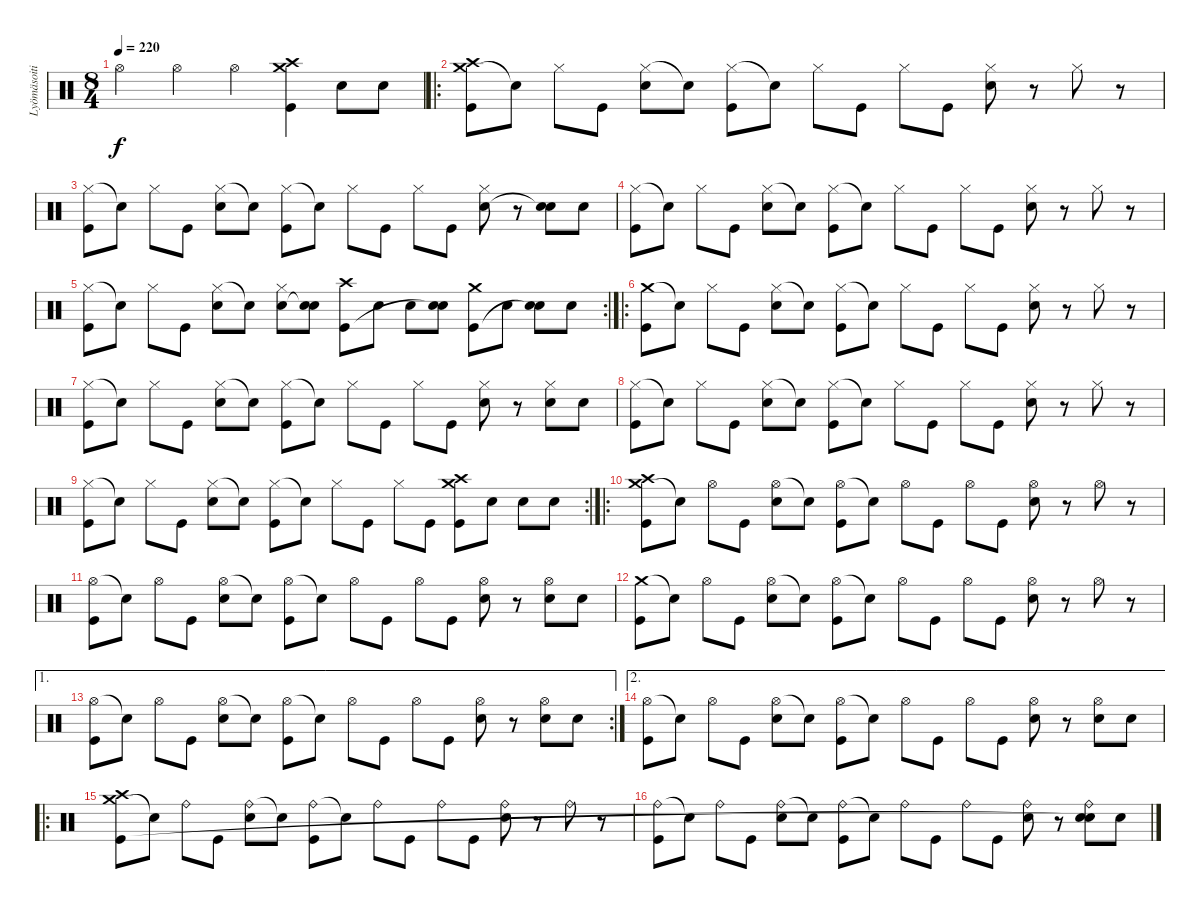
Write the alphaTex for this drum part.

\track ("Lyömäsoitin" "Lyömäsoiti") {instrument percussion}
\staff {score}
\articulation defaults
\ts (8 4)
\tempo 220
\clef neutral
\ks c "Hi-Hat (open)".2{dy f} "Hi-Hat (open)".2 "Hi-Hat (open)".2
("Crash medium (hit)" "Crash high (hit)" "Kick (hit)").4 "Snare (hit) 2".8 "Snare (hit) 2".8 |
\ro
("Crash medium (hit)" "Crash high (hit)" "Kick (hit)").8 "Snare (hit)"{t}.8 "Hi-Hat (closed)".8 "Kick (hit)".8 ("Hi-Hat (closed)" "Snare (hit) 2").8 "Snare (hit)"{t}.8 ("Hi-Hat (closed)" "Kick (hit)").8 "Snare (hit)"{t}.8 "Hi-Hat (closed)".8 "Kick (hit)".8 "Hi-Hat (closed)".8 "Kick (hit)".8 ("Hi-Hat (closed)" "Snare (hit) 2").8 r.8 "Hi-Hat (closed)".8 r.8 |
("Hi-Hat (closed)" "Kick (hit)").8 "Snare (hit)"{t}.8 "Hi-Hat (closed)".8 "Kick (hit)".8 ("Hi-Hat (closed)" "Snare (hit) 2").8 "Snare (hit)"{t}.8 ("Hi-Hat (closed)" "Kick (hit)").8 "Snare (hit)"{t}.8 "Hi-Hat (closed)".8 "Kick (hit)".8 "Hi-Hat (closed)".8 "Kick (hit)".8 ("Hi-Hat (closed)" "Snare (hit) 2").8 r.8 ("Snare (hit) 2" "Snare (hit)"{t}).8 "Snare (hit) 2".8 |
("Hi-Hat (closed)" "Kick (hit)").8 "Snare (hit)"{t}.8 "Hi-Hat (closed)".8 "Kick (hit)".8 ("Hi-Hat (closed)" "Snare (hit) 2").8 "Snare (hit)"{t}.8 ("Hi-Hat (closed)" "Kick (hit)").8 "Snare (hit)"{t}.8 "Hi-Hat (closed)".8 "Kick (hit)".8 "Hi-Hat (closed)".8 "Kick (hit)".8 ("Hi-Hat (closed)" "Snare (hit) 2").8 r.8 "Hi-Hat (closed)".8 r.8 |
\rc 2
("Hi-Hat (closed)" "Kick (hit)").8 "Snare (hit)"{t}.8 "Hi-Hat (closed)".8 "Kick (hit)".8 ("Hi-Hat (closed)" "Snare (hit) 2").8 "Snare (hit)"{t}.8 ("Hi-Hat (closed)" "Snare (hit) 2").8 ("Snare (hit) 2" "Snare (hit)"{t}).8 ("Crash high (hit)" "Kick (hit)").8 "Snare (hit) 2".8 "Snare (hit) 2".8 ("Snare (hit) 2" "Snare (hit)"{t}).8 ("Crash medium (hit)" "Kick (hit)").8 "Snare (hit) 2".8 ("Snare (hit) 2" "Snare (hit)"{t}).8 "Snare (hit) 2".8 |
\ro
("Crash medium (hit)" "Kick (hit)").8 "Snare (hit)"{t}.8 "Hi-Hat (closed)".8 "Kick (hit)".8 ("Hi-Hat (closed)" "Snare (hit) 2").8 "Snare (hit)"{t}.8 ("Hi-Hat (closed)" "Kick (hit)").8 "Snare (hit)"{t}.8 "Hi-Hat (closed)".8 "Kick (hit)".8 "Hi-Hat (closed)".8 "Kick (hit)".8 ("Hi-Hat (closed)" "Snare (hit) 2").8 r.8 "Hi-Hat (closed)".8 r.8 |
("Hi-Hat (closed)" "Kick (hit)").8 "Snare (hit)"{t}.8 "Hi-Hat (closed)".8 "Kick (hit)".8 ("Hi-Hat (closed)" "Snare (hit) 2").8 "Snare (hit)"{t}.8 ("Hi-Hat (closed)" "Kick (hit)").8 "Snare (hit)"{t}.8 "Hi-Hat (closed)".8 "Kick (hit)".8 "Hi-Hat (closed)".8 "Kick (hit)".8 ("Hi-Hat (closed)" "Snare (hit) 2").8 r.8 ("Hi-Hat (closed)" "Snare (hit) 2").8 "Snare (hit) 2".8 |
("Hi-Hat (closed)" "Kick (hit)").8 "Snare (hit)"{t}.8 "Hi-Hat (closed)".8 "Kick (hit)".8 ("Hi-Hat (closed)" "Snare (hit) 2").8 "Snare (hit)"{t}.8 ("Hi-Hat (closed)" "Kick (hit)").8 "Snare (hit)"{t}.8 "Hi-Hat (closed)".8 "Kick (hit)".8 "Hi-Hat (closed)".8 "Kick (hit)".8 ("Hi-Hat (closed)" "Snare (hit) 2").8 r.8 "Hi-Hat (closed)".8 r.8 |
\rc 2
("Hi-Hat (closed)" "Kick (hit)").8 "Snare (hit)"{t}.8 "Hi-Hat (closed)".8 "Kick (hit)".8 ("Hi-Hat (closed)" "Snare (hit) 2").8 "Snare (hit)"{t}.8 ("Hi-Hat (closed)" "Kick (hit)").8 "Snare (hit)"{t}.8 "Hi-Hat (closed)".8 "Kick (hit)".8 "Hi-Hat (closed)".8 "Kick (hit)".8 ("Crash medium (hit)" "Crash high (hit)" "Kick (hit)").8 "Snare (hit) 2".8 "Snare (hit) 2".8 "Snare (hit) 2".8 |
\ro
("Crash medium (hit)" "Crash high (hit)" "Kick (hit)").8 "Snare (hit)"{t}.8 "Hi-Hat (open)".8 "Kick (hit)".8 ("Hi-Hat (open)" "Snare (hit) 2").8 "Snare (hit)"{t}.8 ("Hi-Hat (open)" "Kick (hit)").8 "Snare (hit)"{t}.8 "Hi-Hat (open)".8 "Kick (hit)".8 "Hi-Hat (open)".8 "Kick (hit)".8 ("Hi-Hat (open)" "Snare (hit) 2").8 r.8 "Hi-Hat (open)".8 r.8 |
("Hi-Hat (open)" "Kick (hit)").8 "Snare (hit)"{t}.8 "Hi-Hat (open)".8 "Kick (hit)".8 ("Hi-Hat (open)" "Snare (hit) 2").8 "Snare (hit)"{t}.8 ("Hi-Hat (open)" "Kick (hit)").8 "Snare (hit)"{t}.8 "Hi-Hat (open)".8 "Kick (hit)".8 "Hi-Hat (open)".8 "Kick (hit)".8 ("Hi-Hat (open)" "Snare (hit) 2").8 r.8 ("Hi-Hat (open)" "Snare (hit) 2").8 "Snare (hit) 2".8 |
("Crash medium (hit)" "Kick (hit)").8 "Snare (hit)"{t}.8 "Hi-Hat (open)".8 "Kick (hit)".8 ("Hi-Hat (open)" "Snare (hit) 2").8 "Snare (hit)"{t}.8 ("Hi-Hat (open)" "Kick (hit)").8 "Snare (hit)"{t}.8 "Hi-Hat (open)".8 "Kick (hit)".8 "Hi-Hat (open)".8 "Kick (hit)".8 ("Hi-Hat (open)" "Snare (hit) 2").8 r.8 "Hi-Hat (open)".8 r.8 |
\ae 1
\rc 2
("Hi-Hat (open)" "Kick (hit)").8 "Snare (hit)"{t}.8 "Hi-Hat (open)".8 "Kick (hit)".8 ("Hi-Hat (open)" "Snare (hit) 2").8 "Snare (hit)"{t}.8 ("Hi-Hat (open)" "Kick (hit)").8 "Snare (hit)"{t}.8 "Hi-Hat (open)".8 "Kick (hit)".8 "Hi-Hat (open)".8 "Kick (hit)".8 ("Hi-Hat (open)" "Snare (hit) 2").8 r.8 ("Hi-Hat (open)" "Snare (hit) 2").8 "Snare (hit) 2".8 |
\ae 2
("Hi-Hat (open)" "Kick (hit)").8 "Snare (hit)"{t}.8 "Hi-Hat (open)".8 "Kick (hit)".8 ("Hi-Hat (open)" "Snare (hit) 2").8 "Snare (hit)"{t}.8 ("Hi-Hat (open)" "Kick (hit)").8 "Snare (hit)"{t}.8 "Hi-Hat (open)".8 "Kick (hit)".8 "Hi-Hat (open)".8 "Kick (hit)".8 ("Hi-Hat (open)" "Snare (hit) 2").8 r.8 ("Hi-Hat (open)" "Snare (hit) 2").8 "Snare (hit) 2".8 |
\ro
("Crash medium (hit)" "Crash high (hit)" "Kick (hit)").8 "Snare (hit)"{t}.8 "Ride (bell)".8 "Kick (hit)".8 ("Ride (bell)" "Snare (hit) 2").8 "Snare (hit)"{t}.8 ("Ride (bell)" "Kick (hit)").8 "Snare (hit)"{t}.8 "Ride (bell)".8 "Kick (hit)".8 "Ride (bell)".8 "Kick (hit)".8 ("Ride (bell)" "Snare (hit) 2").8 r.8 "Ride (bell)".8 r.8 |
("Ride (bell)" "Kick (hit)").8 "Snare (hit)"{t}.8 "Ride (bell)".8 "Kick (hit)".8 ("Ride (bell)" "Snare (hit) 2").8 "Snare (hit)"{t}.8 ("Ride (bell)" "Kick (hit)").8 "Snare (hit)"{t}.8 "Ride (bell)".8 "Kick (hit)".8 "Ride (bell)".8 "Kick (hit)".8 ("Ride (bell)" "Snare (hit) 2").8 r.8 ("Ride (bell)" "Snare (hit) 2" "Snare (hit)"{t}).8 "Snare (hit) 2".8
